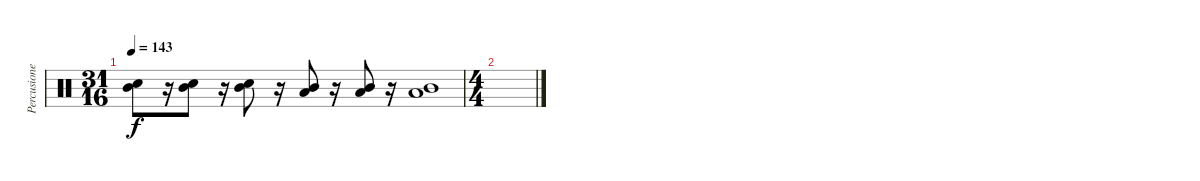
\track ("Percusiones" "Percusione") {instrument percussion}
\staff {score}
\articulation defaults
\ts (31 16)
\tempo 143
\clef neutral
\ks c
("Snare (hit) 2" "Mid Tom (hit)").8{dy f} r.16 ("Snare (hit) 2" "Mid Tom (hit)").8 r.16 ("Snare (hit) 2" "Mid Tom (hit)").8 r.16 ("Mid Tom (hit)" "Low Tom (hit)").8 r.16 ("Mid Tom (hit)" "Low Tom (hit)").8 r.16 ("Mid Tom (hit)" "Low Tom (hit)").1 |
\ts (4 4)
